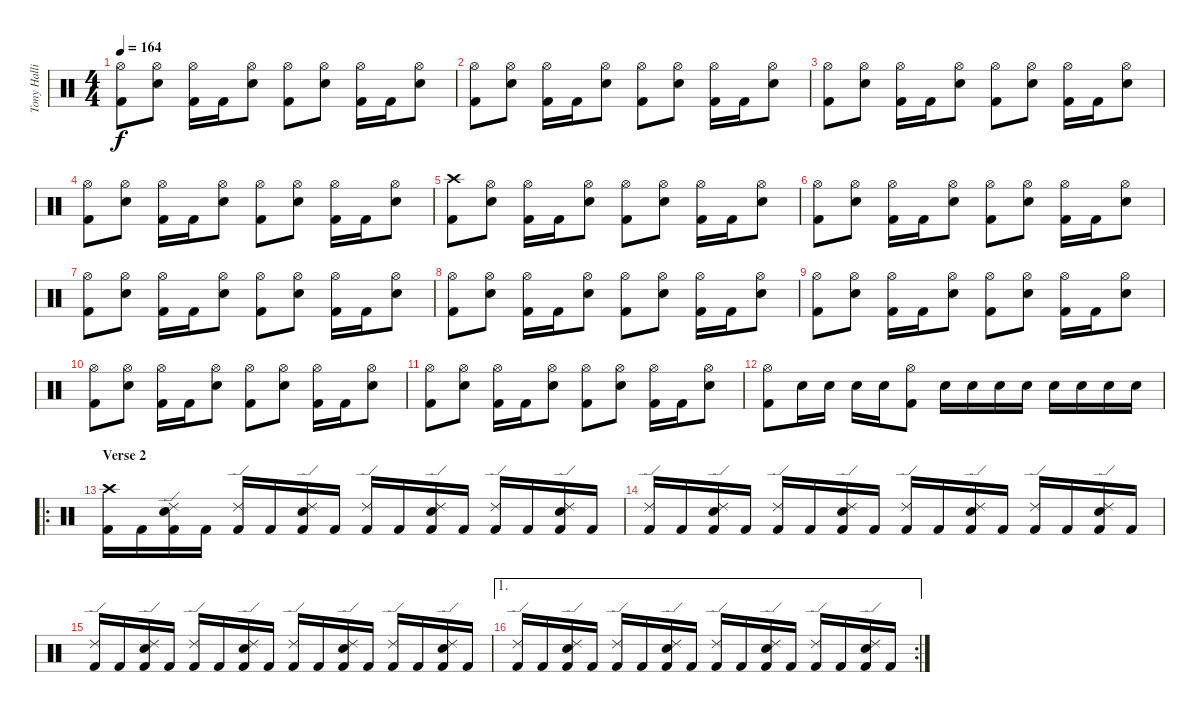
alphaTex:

\track ("Tony Hallio - Drums" "Tony Halli") {instrument percussion}
\staff {score}
\articulation defaults
\ts (4 4)
\tempo 164
\clef neutral
\ks c
("Hi-Hat (open)" "Kick (hit) 2").8{dy f} ("Hi-Hat (open)" "Electric Snare (hit)").8 ("Hi-Hat (open)" "Kick (hit) 2").16 "Kick (hit) 2".16 ("Hi-Hat (open)" "Electric Snare (hit)").8 ("Hi-Hat (open)" "Kick (hit) 2").8 ("Hi-Hat (open)" "Electric Snare (hit)").8 ("Hi-Hat (open)" "Kick (hit) 2").16 "Kick (hit) 2".16 ("Hi-Hat (open)" "Electric Snare (hit)").8 |
("Hi-Hat (open)" "Kick (hit) 2").8 ("Hi-Hat (open)" "Electric Snare (hit)").8 ("Hi-Hat (open)" "Kick (hit) 2").16 "Kick (hit) 2".16 ("Hi-Hat (open)" "Electric Snare (hit)").8 ("Hi-Hat (open)" "Kick (hit) 2").8 ("Hi-Hat (open)" "Electric Snare (hit)").8 ("Hi-Hat (open)" "Kick (hit) 2").16 "Kick (hit) 2".16 ("Hi-Hat (open)" "Electric Snare (hit)").8 |
("Hi-Hat (open)" "Kick (hit) 2").8 ("Hi-Hat (open)" "Electric Snare (hit)").8 ("Hi-Hat (open)" "Kick (hit) 2").16 "Kick (hit) 2".16 ("Hi-Hat (open)" "Electric Snare (hit)").8 ("Hi-Hat (open)" "Kick (hit) 2").8 ("Hi-Hat (open)" "Electric Snare (hit)").8 ("Hi-Hat (open)" "Kick (hit) 2").16 "Kick (hit) 2".16 ("Hi-Hat (open)" "Electric Snare (hit)").8 |
("Hi-Hat (open)" "Kick (hit) 2").8 ("Hi-Hat (open)" "Electric Snare (hit)").8 ("Hi-Hat (open)" "Kick (hit) 2").16 "Kick (hit) 2".16 ("Hi-Hat (open)" "Electric Snare (hit)").8 ("Hi-Hat (open)" "Kick (hit) 2").8 ("Hi-Hat (open)" "Electric Snare (hit)").8 ("Hi-Hat (open)" "Kick (hit) 2").16 "Kick (hit) 2".16 ("Hi-Hat (open)" "Electric Snare (hit)").8 |
("Crash high (hit)" "Kick (hit) 2").8 ("Hi-Hat (open)" "Electric Snare (hit)").8 ("Hi-Hat (open)" "Kick (hit) 2").16 "Kick (hit) 2".16 ("Hi-Hat (open)" "Electric Snare (hit)").8 ("Hi-Hat (open)" "Kick (hit) 2").8 ("Hi-Hat (open)" "Electric Snare (hit)").8 ("Hi-Hat (open)" "Kick (hit) 2").16 "Kick (hit) 2".16 ("Hi-Hat (open)" "Electric Snare (hit)").8 |
("Hi-Hat (open)" "Kick (hit) 2").8 ("Hi-Hat (open)" "Electric Snare (hit)").8 ("Hi-Hat (open)" "Kick (hit) 2").16 "Kick (hit) 2".16 ("Hi-Hat (open)" "Electric Snare (hit)").8 ("Hi-Hat (open)" "Kick (hit) 2").8 ("Hi-Hat (open)" "Electric Snare (hit)").8 ("Hi-Hat (open)" "Kick (hit) 2").16 "Kick (hit) 2".16 ("Hi-Hat (open)" "Electric Snare (hit)").8 |
("Hi-Hat (open)" "Kick (hit) 2").8 ("Hi-Hat (open)" "Electric Snare (hit)").8 ("Hi-Hat (open)" "Kick (hit) 2").16 "Kick (hit) 2".16 ("Hi-Hat (open)" "Electric Snare (hit)").8 ("Hi-Hat (open)" "Kick (hit) 2").8 ("Hi-Hat (open)" "Electric Snare (hit)").8 ("Hi-Hat (open)" "Kick (hit) 2").16 "Kick (hit) 2".16 ("Hi-Hat (open)" "Electric Snare (hit)").8 |
("Hi-Hat (open)" "Kick (hit) 2").8 ("Hi-Hat (open)" "Electric Snare (hit)").8 ("Hi-Hat (open)" "Kick (hit) 2").16 "Kick (hit) 2".16 ("Hi-Hat (open)" "Electric Snare (hit)").8 ("Hi-Hat (open)" "Kick (hit) 2").8 ("Hi-Hat (open)" "Electric Snare (hit)").8 ("Hi-Hat (open)" "Kick (hit) 2").16 "Kick (hit) 2".16 ("Hi-Hat (open)" "Electric Snare (hit)").8 |
("Hi-Hat (open)" "Kick (hit) 2").8 ("Hi-Hat (open)" "Electric Snare (hit)").8 ("Hi-Hat (open)" "Kick (hit) 2").16 "Kick (hit) 2".16 ("Hi-Hat (open)" "Electric Snare (hit)").8 ("Hi-Hat (open)" "Kick (hit) 2").8 ("Hi-Hat (open)" "Electric Snare (hit)").8 ("Hi-Hat (open)" "Kick (hit) 2").16 "Kick (hit) 2".16 ("Hi-Hat (open)" "Electric Snare (hit)").8 |
("Hi-Hat (open)" "Kick (hit) 2").8 ("Hi-Hat (open)" "Electric Snare (hit)").8 ("Hi-Hat (open)" "Kick (hit) 2").16 "Kick (hit) 2".16 ("Hi-Hat (open)" "Electric Snare (hit)").8 ("Hi-Hat (open)" "Kick (hit) 2").8 ("Hi-Hat (open)" "Electric Snare (hit)").8 ("Hi-Hat (open)" "Kick (hit) 2").16 "Kick (hit) 2".16 ("Hi-Hat (open)" "Electric Snare (hit)").8 |
("Hi-Hat (open)" "Kick (hit) 2").8 ("Hi-Hat (open)" "Electric Snare (hit)").8 ("Hi-Hat (open)" "Kick (hit) 2").16 "Kick (hit) 2".16 ("Hi-Hat (open)" "Electric Snare (hit)").8 ("Hi-Hat (open)" "Kick (hit) 2").8 ("Hi-Hat (open)" "Electric Snare (hit)").8 ("Hi-Hat (open)" "Kick (hit) 2").16 "Kick (hit) 2".16 ("Hi-Hat (open)" "Electric Snare (hit)").8 |
("Hi-Hat (open)" "Kick (hit) 2").8 "Electric Snare (hit)".16 "Electric Snare (hit)".16 "Electric Snare (hit)".16 "Electric Snare (hit)".16 ("Hi-Hat (open)" "Kick (hit) 2").8 "Electric Snare (hit)".16 "Electric Snare (hit)".16 "Electric Snare (hit)".16 "Electric Snare (hit)".16 "Electric Snare (hit)".16 "Electric Snare (hit)".16 "Electric Snare (hit)".16 "Electric Snare (hit)".16 |
\ro
\section ("" "Verse 2")
("Crash high (hit)" "Kick (hit) 2").16 "Kick (hit) 2".16 ("Ride (edge) 2" "Electric Snare (hit)" "Kick (hit) 2").16 "Kick (hit) 2".16 ("Ride (edge) 2" "Kick (hit) 2").16 "Kick (hit) 2".16 ("Ride (edge) 2" "Electric Snare (hit)" "Kick (hit) 2").16 "Kick (hit) 2".16 ("Ride (edge) 2" "Kick (hit) 2").16 "Kick (hit) 2".16 ("Ride (edge) 2" "Electric Snare (hit)" "Kick (hit) 2").16 "Kick (hit) 2".16 ("Ride (edge) 2" "Kick (hit) 2").16 "Kick (hit) 2".16 ("Ride (edge) 2" "Electric Snare (hit)" "Kick (hit) 2").16 "Kick (hit) 2".16 |
("Ride (edge) 2" "Kick (hit) 2").16 "Kick (hit) 2".16 ("Ride (edge) 2" "Electric Snare (hit)" "Kick (hit) 2").16 "Kick (hit) 2".16 ("Ride (edge) 2" "Kick (hit) 2").16 "Kick (hit) 2".16 ("Ride (edge) 2" "Electric Snare (hit)" "Kick (hit) 2").16 "Kick (hit) 2".16 ("Ride (edge) 2" "Kick (hit) 2").16 "Kick (hit) 2".16 ("Ride (edge) 2" "Electric Snare (hit)" "Kick (hit) 2").16 "Kick (hit) 2".16 ("Ride (edge) 2" "Kick (hit) 2").16 "Kick (hit) 2".16 ("Ride (edge) 2" "Electric Snare (hit)" "Kick (hit) 2").16 "Kick (hit) 2".16 |
("Ride (edge) 2" "Kick (hit) 2").16 "Kick (hit) 2".16 ("Ride (edge) 2" "Electric Snare (hit)" "Kick (hit) 2").16 "Kick (hit) 2".16 ("Ride (edge) 2" "Kick (hit) 2").16 "Kick (hit) 2".16 ("Ride (edge) 2" "Electric Snare (hit)" "Kick (hit) 2").16 "Kick (hit) 2".16 ("Ride (edge) 2" "Kick (hit) 2").16 "Kick (hit) 2".16 ("Ride (edge) 2" "Electric Snare (hit)" "Kick (hit) 2").16 "Kick (hit) 2".16 ("Ride (edge) 2" "Kick (hit) 2").16 "Kick (hit) 2".16 ("Ride (edge) 2" "Electric Snare (hit)" "Kick (hit) 2").16 "Kick (hit) 2".16 |
\ae 1
\rc 2
("Ride (edge) 2" "Kick (hit) 2").16 "Kick (hit) 2".16 ("Ride (edge) 2" "Electric Snare (hit)" "Kick (hit) 2").16 "Kick (hit) 2".16 ("Ride (edge) 2" "Kick (hit) 2").16 "Kick (hit) 2".16 ("Ride (edge) 2" "Electric Snare (hit)" "Kick (hit) 2").16 "Kick (hit) 2".16 ("Ride (edge) 2" "Kick (hit) 2").16 "Kick (hit) 2".16 ("Ride (edge) 2" "Electric Snare (hit)" "Kick (hit) 2").16 "Kick (hit) 2".16 ("Ride (edge) 2" "Kick (hit) 2").16 "Kick (hit) 2".16 ("Ride (edge) 2" "Electric Snare (hit)" "Kick (hit) 2").16 "Kick (hit) 2".16
